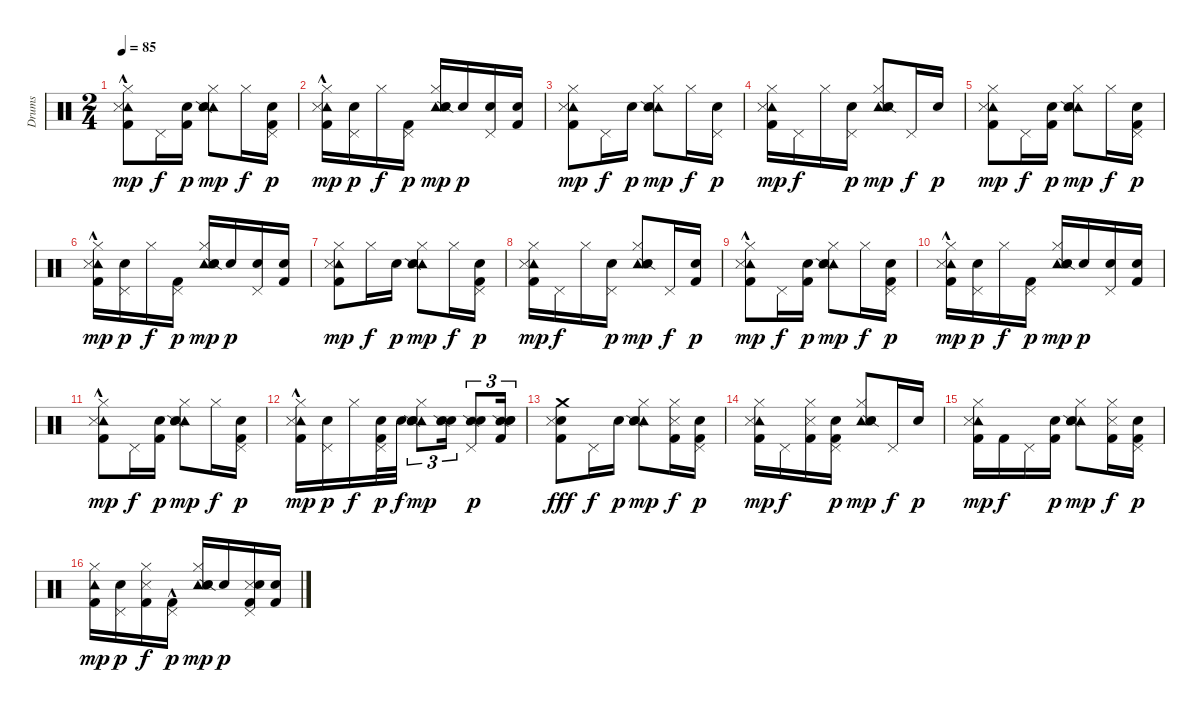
\track ("Drums" "Drums") {instrument percussion}
\staff {score}
\articulation defaults
\ts (2 4)
\tempo 85
\clef neutral
\ks c
("Tambourine (hit)" "Metronome (hit)" "Kick (hit) 2"{hac} "Hi-Hat (closed)").8{dy mp} "Pedal Hi-Hat (hit)".16{dy f} ("Electric Snare (hit)" "Kick (hit) 2").16{dy p} ("Tambourine (hit)" "Snare (hit) 2" "Snare (side stick) 2" "Hi-Hat (closed)").8{dy mp} "Hi-Hat (closed)".16{dy f} ("Electric Snare (hit)" "Kick (hit) 2" "Pedal Hi-Hat (hit)").16{dy p} |
("Tambourine (hit)" "Metronome (hit)" "Kick (hit) 2"{hac} "Hi-Hat (closed)").16{dy mp} ("Snare (hit) 2" "Pedal Hi-Hat (hit)").16{dy p} "Hi-Hat (closed)".16{dy f} ("Kick (hit) 2" "Pedal Hi-Hat (hit)").16{dy p} ("Tambourine (hit)" "Snare (hit) 2" "Snare (side stick) 2" "Hi-Hat (closed)").16{dy mp} "Electric Snare (hit)".16{dy p} ("Electric Snare (hit)" "Pedal Hi-Hat (hit)").16 ("Kick (hit) 2" "Electric Snare (hit)").16 |
("Tambourine (hit)" "Metronome (hit)" "Kick (hit) 2" "Hi-Hat (closed)").8{dy mp} "Pedal Hi-Hat (hit)".16{dy f} "Electric Snare (hit)".16{dy p} ("Tambourine (hit)" "Snare (hit) 2" "Hi-Hat (closed)" "Snare (side stick) 2").8{dy mp} "Hi-Hat (closed)".16{dy f} ("Electric Snare (hit)" "Pedal Hi-Hat (hit)").16{dy p} |
("Tambourine (hit)" "Metronome (hit)" "Kick (hit) 2" "Hi-Hat (closed)").16{dy mp} "Pedal Hi-Hat (hit)".16{dy f} "Hi-Hat (closed)".16 ("Electric Snare (hit)" "Pedal Hi-Hat (hit)").16{dy p} ("Tambourine (hit)" "Snare (side stick) 2" "Snare (hit) 2" "Hi-Hat (closed)").8{dy mp} "Pedal Hi-Hat (hit)".16{dy f} "Electric Snare (hit)".16{dy p} |
("Tambourine (hit)" "Metronome (hit)" "Kick (hit) 2" "Hi-Hat (closed)").8{dy mp} "Pedal Hi-Hat (hit)".16{dy f} ("Electric Snare (hit)" "Kick (hit) 2").16{dy p} ("Tambourine (hit)" "Snare (hit) 2" "Snare (side stick) 2" "Hi-Hat (closed)").8{dy mp} "Hi-Hat (closed)".16{dy f} ("Electric Snare (hit)" "Kick (hit) 2" "Pedal Hi-Hat (hit)").16{dy p} |
("Tambourine (hit)" "Metronome (hit)" "Kick (hit) 2"{hac} "Hi-Hat (closed)").16{dy mp} ("Snare (hit) 2" "Pedal Hi-Hat (hit)").16{dy p} "Hi-Hat (closed)".16{dy f} ("Kick (hit) 2" "Pedal Hi-Hat (hit)").16{dy p} ("Tambourine (hit)" "Snare (hit) 2" "Snare (side stick) 2" "Hi-Hat (closed)").16{dy mp} "Electric Snare (hit)".16{dy p} ("Electric Snare (hit)" "Pedal Hi-Hat (hit)").16 ("Kick (hit) 2" "Electric Snare (hit)").16 |
("Tambourine (hit)" "Metronome (hit)" "Kick (hit) 2" "Hi-Hat (closed)").8{dy mp} "Hi-Hat (closed)".16{dy f} "Electric Snare (hit)".16{dy p} ("Tambourine (hit)" "Snare (hit) 2" "Hi-Hat (closed)" "Snare (side stick) 2").8{dy mp} "Hi-Hat (closed)".16{dy f} ("Kick (hit) 2" "Electric Snare (hit)" "Pedal Hi-Hat (hit)").16{dy p} |
("Tambourine (hit)" "Metronome (hit)" "Kick (hit) 2" "Hi-Hat (closed)").16{dy mp} "Pedal Hi-Hat (hit)".16{dy f} "Hi-Hat (closed)".16 ("Electric Snare (hit)" "Pedal Hi-Hat (hit)").16{dy p} ("Tambourine (hit)" "Snare (side stick) 2" "Snare (hit) 2" "Hi-Hat (closed)").8{dy mp} "Pedal Hi-Hat (hit)".16{dy f} ("Kick (hit) 2" "Electric Snare (hit)").16{dy p} |
("Tambourine (hit)" "Metronome (hit)" "Kick (hit) 2"{hac} "Hi-Hat (closed)").8{dy mp} "Pedal Hi-Hat (hit)".16{dy f} ("Electric Snare (hit)" "Kick (hit) 2").16{dy p} ("Tambourine (hit)" "Snare (hit) 2" "Snare (side stick) 2" "Hi-Hat (closed)").8{dy mp} "Hi-Hat (closed)".16{dy f} ("Electric Snare (hit)" "Kick (hit) 2" "Pedal Hi-Hat (hit)").16{dy p} |
("Tambourine (hit)" "Metronome (hit)" "Kick (hit) 2"{hac} "Hi-Hat (closed)").16{dy mp} ("Snare (hit) 2" "Pedal Hi-Hat (hit)").16{dy p} "Hi-Hat (closed)".16{dy f} ("Kick (hit) 2" "Pedal Hi-Hat (hit)").16{dy p} ("Tambourine (hit)" "Snare (hit) 2" "Snare (side stick) 2" "Hi-Hat (closed)").16{dy mp} "Electric Snare (hit)".16{dy p} ("Electric Snare (hit)" "Pedal Hi-Hat (hit)").16 ("Kick (hit) 2" "Electric Snare (hit)").16 |
("Tambourine (hit)" "Metronome (hit)" "Kick (hit) 2"{hac} "Hi-Hat (closed)").8{dy mp} "Pedal Hi-Hat (hit)".16{dy f} ("Kick (hit) 2" "Electric Snare (hit)").16{dy p} ("Tambourine (hit)" "Snare (hit) 2" "Snare (side stick) 2" "Hi-Hat (closed)").8{dy mp} "Hi-Hat (closed)".16{dy f} ("Electric Snare (hit)" "Kick (hit) 2" "Pedal Hi-Hat (hit)").16{dy p} |
("Tambourine (hit)" "Metronome (hit)" "Kick (hit) 2"{hac} "Hi-Hat (closed)").16{dy mp} ("Snare (hit) 2" "Pedal Hi-Hat (hit)").16{dy p} "Hi-Hat (closed)".16{dy f} ("Snare (hit) 2" "Kick (hit) 2" "Pedal Hi-Hat (hit)").32{dy p} "Electric Snare (hit)".32{dy f} ("Tambourine (hit)" "Snare (hit) 2" "Snare (side stick) 2" "Hi-Hat (closed)" "Electric Snare (hit)").8{tu (3 2) dy mp} ("Snare (hit) 2" "Electric Snare (hit)" "Snare (side stick) 2").16{tu (3 2)} ("Snare (side stick) 2" "Electric Snare (hit)" "Pedal Hi-Hat (hit)").8{tu (3 2) dy p} ("Snare (side stick) 2" "Snare (hit) 2" "Kick (hit) 2" "Electric Snare (hit)").16{tu (3 2)} |
("Snare (hit)" "Crash medium (hit)" "Metronome (hit)" "Kick (hit) 2").8{dy fff} "Pedal Hi-Hat (hit)".16{dy f} "Electric Snare (hit)".16{dy p} ("Tambourine (hit)" "Snare (hit) 2" "Hi-Hat (closed)" "Snare (side stick) 2").8{dy mp} ("Metronome (hit)" "Kick (hit) 2" "Hi-Hat (closed)").16{dy f} ("Kick (hit) 2" "Electric Snare (hit)" "Pedal Hi-Hat (hit)").16{dy p} |
("Tambourine (hit)" "Metronome (hit)" "Kick (hit) 2" "Hi-Hat (closed)").16{dy mp} "Pedal Hi-Hat (hit)".16{dy f} ("Metronome (hit)" "Kick (hit) 2" "Hi-Hat (closed)").16 ("Kick (hit) 2" "Electric Snare (hit)" "Pedal Hi-Hat (hit)").16{dy p} ("Tambourine (hit)" "Snare (side stick) 2" "Snare (hit) 2" "Hi-Hat (closed)").8{dy mp} "Pedal Hi-Hat (hit)".16{dy f} "Electric Snare (hit)".16{dy p} |
("Tambourine (hit)" "Metronome (hit)" "Kick (hit) 2" "Hi-Hat (closed)").16{dy mp} "Kick (hit) 2".16{dy f} "Pedal Hi-Hat (hit)".16 ("Electric Snare (hit)" "Kick (hit) 2").16{dy p} ("Tambourine (hit)" "Snare (hit) 2" "Snare (side stick) 2" "Hi-Hat (closed)").8{dy mp} ("Metronome (hit)" "Kick (hit) 2" "Hi-Hat (closed)").16{dy f} ("Kick (hit) 2" "Electric Snare (hit)" "Pedal Hi-Hat (hit)").16{dy p} |
("Kick (hit) 2" "Tambourine (hit)" "Hi-Hat (closed)").16{dy mp} ("Snare (hit) 2" "Pedal Hi-Hat (hit)").16{dy p} ("Metronome (hit)" "Kick (hit) 2" "Hi-Hat (closed)").16{dy f} ("Kick (hit) 2"{hac} "Pedal Hi-Hat (hit)").16{dy p} ("Tambourine (hit)" "Snare (hit) 2" "Snare (side stick) 2" "Hi-Hat (closed)").16{dy mp} "Electric Snare (hit)".16{dy p} ("Metronome (hit)" "Kick (hit) 2" "Electric Snare (hit)" "Pedal Hi-Hat (hit)").16 ("Kick (hit) 2" "Electric Snare (hit)").16
